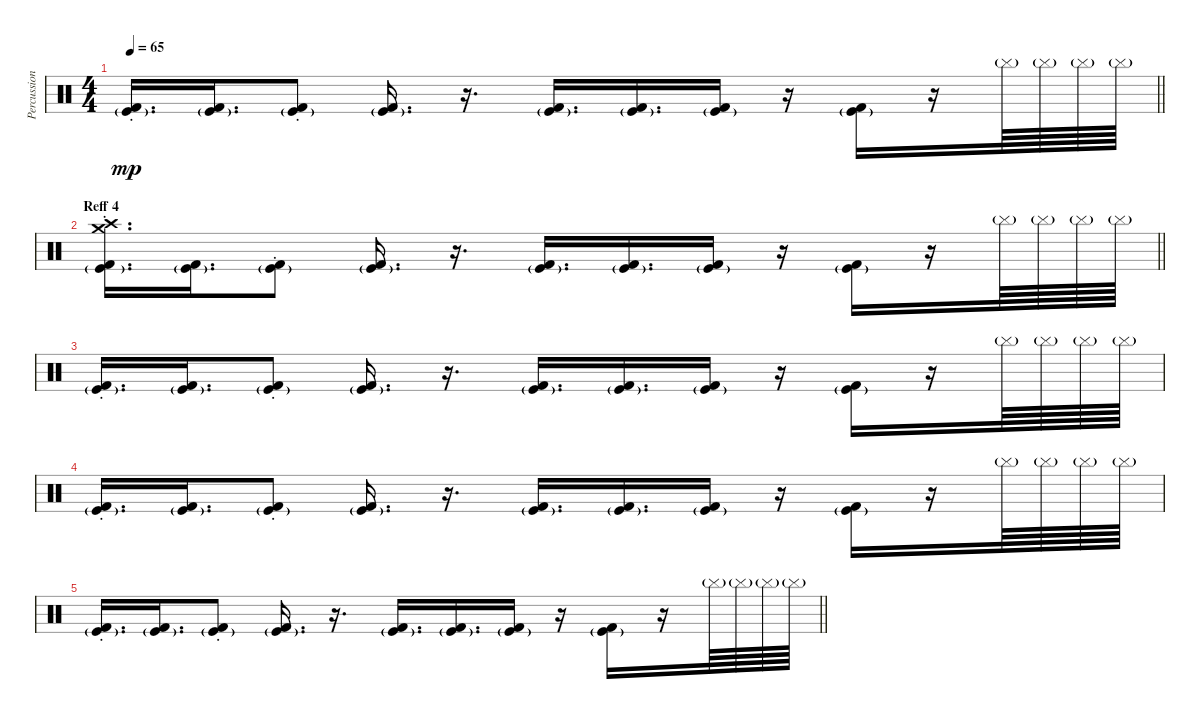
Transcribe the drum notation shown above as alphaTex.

\track ("Percussion 1 (Bass)" "Percussion") {instrument percussion}
\staff {score}
\articulation defaults
\ts (4 4)
\tempo 65
\clef neutral
\barLineRight lightlight
\ks c
("Kick (hit)"{g st} "Kick (hit) 2").16{d dy mp} ("Kick (hit)"{g} "Kick (hit) 2").16{d} ("Kick (hit)"{g} "Kick (hit) 2"{st}).8 ("Kick (hit)"{g} "Kick (hit) 2").16{d} r.16{d} ("Kick (hit)"{g} "Kick (hit) 2").16{d} ("Kick (hit)"{g} "Kick (hit) 2").16{d} ("Kick (hit)"{g} "Kick (hit) 2").16 r.16 ("Kick (hit)"{g} "Kick (hit) 2").16 r.16 "Cymbal (hit)"{g}.64 "Cymbal (hit)"{g}.64 "Cymbal (hit)"{g}.64 "Cymbal (hit)"{g}.64 |
\section ("" "Reff 4")
\barLineRight lightlight
("Crash medium (hit)" "Kick (hit)"{g st} "Kick (hit) 2" "Crash high (hit)").16{d} ("Kick (hit)"{g} "Kick (hit) 2").16{d} ("Kick (hit)"{g} "Kick (hit) 2"{st}).8 ("Kick (hit)"{g} "Kick (hit) 2").16{d} r.16{d} ("Kick (hit)"{g} "Kick (hit) 2").16{d} ("Kick (hit)"{g} "Kick (hit) 2").16{d} ("Kick (hit)"{g} "Kick (hit) 2").16 r.16 ("Kick (hit)"{g} "Kick (hit) 2").16 r.16 "Cymbal (hit)"{g}.64 "Cymbal (hit)"{g}.64 "Cymbal (hit)"{g}.64 "Cymbal (hit)"{g}.64 |
("Kick (hit)"{g st} "Kick (hit) 2").16{d} ("Kick (hit)"{g} "Kick (hit) 2").16{d} ("Kick (hit)"{g} "Kick (hit) 2"{st}).8 ("Kick (hit)"{g} "Kick (hit) 2").16{d} r.16{d} ("Kick (hit)"{g} "Kick (hit) 2").16{d} ("Kick (hit)"{g} "Kick (hit) 2").16{d} ("Kick (hit)"{g} "Kick (hit) 2").16 r.16 ("Kick (hit)"{g} "Kick (hit) 2").16 r.16 "Cymbal (hit)"{g}.64 "Cymbal (hit)"{g}.64 "Cymbal (hit)"{g}.64 "Cymbal (hit)"{g}.64 |
("Kick (hit)"{g st} "Kick (hit) 2").16{d} ("Kick (hit)"{g} "Kick (hit) 2").16{d} ("Kick (hit)"{g} "Kick (hit) 2"{st}).8 ("Kick (hit)"{g} "Kick (hit) 2").16{d} r.16{d} ("Kick (hit)"{g} "Kick (hit) 2").16{d} ("Kick (hit)"{g} "Kick (hit) 2").16{d} ("Kick (hit)"{g} "Kick (hit) 2").16 r.16 ("Kick (hit)"{g} "Kick (hit) 2").16 r.16 "Cymbal (hit)"{g}.64 "Cymbal (hit)"{g}.64 "Cymbal (hit)"{g}.64 "Cymbal (hit)"{g}.64 |
\barLineRight lightlight
("Kick (hit)"{g st} "Kick (hit) 2").16{d} ("Kick (hit)"{g} "Kick (hit) 2").16{d} ("Kick (hit)"{g} "Kick (hit) 2"{st}).8 ("Kick (hit)"{g} "Kick (hit) 2").16{d} r.16{d} ("Kick (hit)"{g} "Kick (hit) 2").16{d} ("Kick (hit)"{g} "Kick (hit) 2").16{d} ("Kick (hit)"{g} "Kick (hit) 2").16 r.16 ("Kick (hit)"{g} "Kick (hit) 2").16 r.16 "Cymbal (hit)"{g}.64 "Cymbal (hit)"{g}.64 "Cymbal (hit)"{g}.64 "Cymbal (hit)"{g}.64
